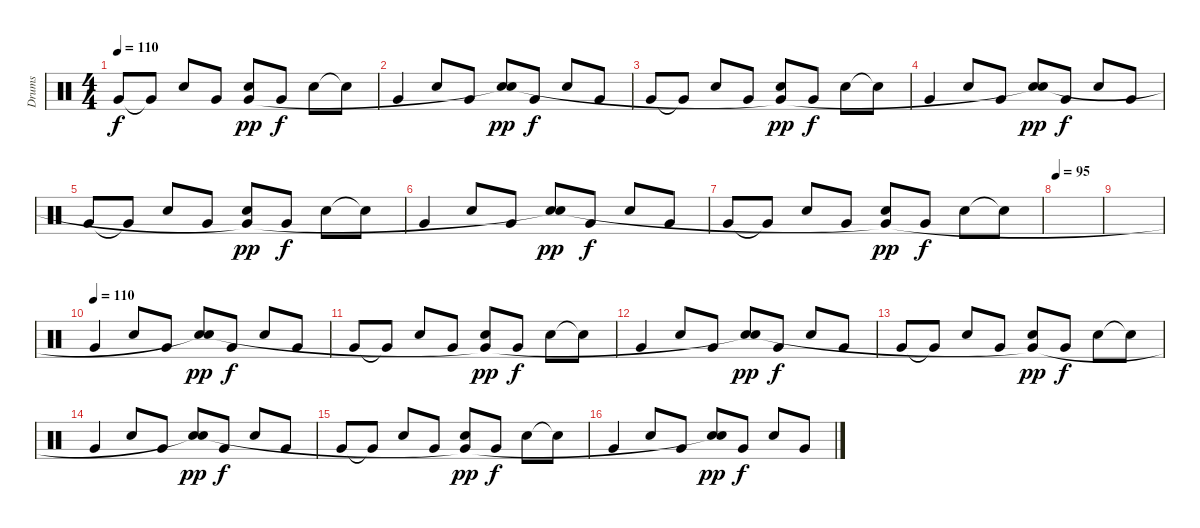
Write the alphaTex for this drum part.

\track ("Drums" "Drums") {instrument percussion}
\staff {score}
\articulation defaults
\ts (4 4)
\tempo 110
\clef neutral
\ks c "Very Low Tom (hit)".8{dy f} "Very Low Tom (hit)"{t}.8 "Electric Snare (hit)".8 "Very Low Tom (hit)".8
("Electric Snare (hit)" "Very Low Tom (hit)"{t}).8{dy pp} "Very Low Tom (hit)".8{dy f} "Electric Snare (hit)".8 "Snare (hit)"{t}.8 |
"Very Low Tom (hit)".4 "Electric Snare (hit)".8 "Very Low Tom (hit)".8 ("Electric Snare (hit)" "Snare (hit)"{t}).8{dy pp} "Very Low Tom (hit)".8{dy f} "Electric Snare (hit)".8 "Very Low Tom (hit)".8 |
"Very Low Tom (hit)".8 "Very Low Tom (hit)"{t}.8 "Electric Snare (hit)".8 "Very Low Tom (hit)".8 ("Electric Snare (hit)" "Very Low Tom (hit)"{t}).8{dy pp} "Very Low Tom (hit)".8{dy f} "Electric Snare (hit)".8 "Snare (hit)"{t}.8 |
"Very Low Tom (hit)".4 "Electric Snare (hit)".8 "Very Low Tom (hit)".8 ("Electric Snare (hit)" "Snare (hit)"{t}).8{dy pp} "Very Low Tom (hit)".8{dy f} "Electric Snare (hit)".8 "Very Low Tom (hit)".8 |
"Very Low Tom (hit)".8 "Very Low Tom (hit)"{t}.8 "Electric Snare (hit)".8 "Very Low Tom (hit)".8 ("Electric Snare (hit)" "Very Low Tom (hit)"{t}).8{dy pp} "Very Low Tom (hit)".8{dy f} "Electric Snare (hit)".8 "Snare (hit)"{t}.8 |
"Very Low Tom (hit)".4 "Electric Snare (hit)".8 "Very Low Tom (hit)".8 ("Electric Snare (hit)" "Snare (hit)"{t}).8{dy pp} "Very Low Tom (hit)".8{dy f} "Electric Snare (hit)".8 "Very Low Tom (hit)".8 |
"Very Low Tom (hit)".8 "Very Low Tom (hit)"{t}.8 "Electric Snare (hit)".8 "Very Low Tom (hit)".8 ("Electric Snare (hit)" "Very Low Tom (hit)"{t}).8{dy pp} "Very Low Tom (hit)".8{dy f} "Electric Snare (hit)".8 "Snare (hit)"{t}.8 |
\tempo 95
|
|
\tempo (110)
"Very Low Tom (hit)".4 "Electric Snare (hit)".8 "Very Low Tom (hit)".8 ("Electric Snare (hit)" "Snare (hit)"{t}).8{dy pp} "Very Low Tom (hit)".8{dy f} "Electric Snare (hit)".8 "Very Low Tom (hit)".8 |
"Very Low Tom (hit)".8 "Very Low Tom (hit)"{t}.8 "Electric Snare (hit)".8 "Very Low Tom (hit)".8 ("Electric Snare (hit)" "Very Low Tom (hit)"{t}).8{dy pp} "Very Low Tom (hit)".8{dy f} "Electric Snare (hit)".8 "Snare (hit)"{t}.8 |
"Very Low Tom (hit)".4 "Electric Snare (hit)".8 "Very Low Tom (hit)".8 ("Electric Snare (hit)" "Snare (hit)"{t}).8{dy pp} "Very Low Tom (hit)".8{dy f} "Electric Snare (hit)".8 "Very Low Tom (hit)".8 |
"Very Low Tom (hit)".8 "Very Low Tom (hit)"{t}.8 "Electric Snare (hit)".8 "Very Low Tom (hit)".8 ("Electric Snare (hit)" "Very Low Tom (hit)"{t}).8{dy pp} "Very Low Tom (hit)".8{dy f} "Electric Snare (hit)".8 "Snare (hit)"{t}.8 |
"Very Low Tom (hit)".4 "Electric Snare (hit)".8 "Very Low Tom (hit)".8 ("Electric Snare (hit)" "Snare (hit)"{t}).8{dy pp} "Very Low Tom (hit)".8{dy f} "Electric Snare (hit)".8 "Very Low Tom (hit)".8 |
"Very Low Tom (hit)".8 "Very Low Tom (hit)"{t}.8 "Electric Snare (hit)".8 "Very Low Tom (hit)".8 ("Electric Snare (hit)" "Very Low Tom (hit)"{t}).8{dy pp} "Very Low Tom (hit)".8{dy f} "Electric Snare (hit)".8 "Snare (hit)"{t}.8 |
"Very Low Tom (hit)".4 "Electric Snare (hit)".8 "Very Low Tom (hit)".8 ("Electric Snare (hit)" "Snare (hit)"{t}).8{dy pp} "Very Low Tom (hit)".8{dy f} "Electric Snare (hit)".8 "Very Low Tom (hit)".8
